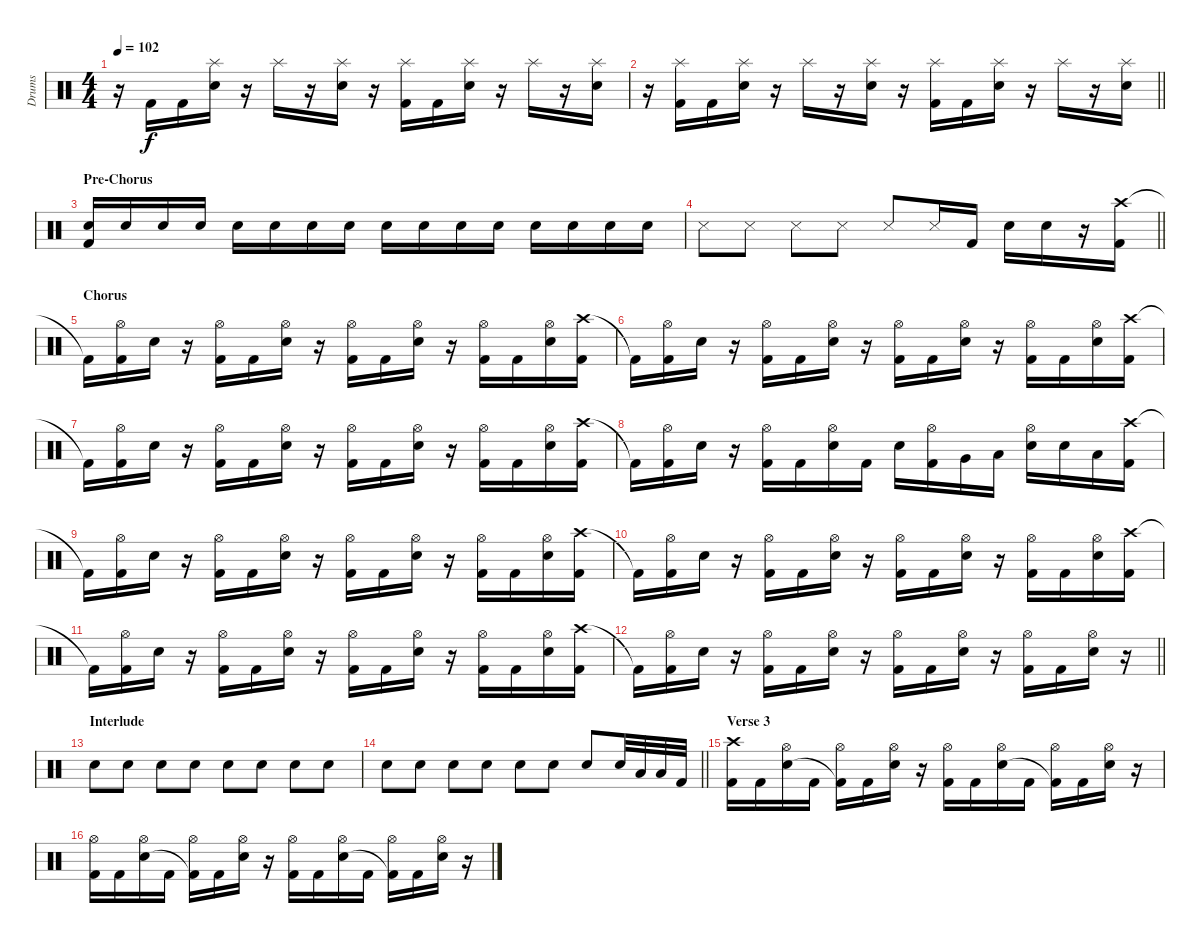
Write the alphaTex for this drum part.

\track ("Drums" "Drums") {instrument percussion}
\staff {score}
\articulation defaults
\ts (4 4)
\tempo 102
\clef neutral
\ks c
r.16{dy f} "Kick (hit) 2".16 "Kick (hit) 2".16 ("Splash (hit)" "Electric Snare (hit)").16 r.16 "Splash (hit)".16 r.16 ("Splash (hit)" "Electric Snare (hit)").16 r.16 ("Splash (hit)" "Kick (hit) 2").16 "Kick (hit) 2".16 ("Splash (hit)" "Electric Snare (hit)").16 r.16 "Splash (hit)".16 r.16 ("Splash (hit)" "Electric Snare (hit)").16 |
\barLineRight lightlight
r.16 ("Splash (hit)" "Kick (hit) 2").16 "Kick (hit) 2".16 ("Splash (hit)" "Electric Snare (hit)").16 r.16 "Splash (hit)".16 r.16 ("Splash (hit)" "Electric Snare (hit)").16 r.16 ("Splash (hit)" "Kick (hit) 2").16 "Kick (hit) 2".16 ("Splash (hit)" "Electric Snare (hit)").16 r.16 "Splash (hit)".16 r.16 ("Splash (hit)" "Electric Snare (hit)").16 |
\section ("" "Pre-Chorus")
("Electric Snare (hit)" "Kick (hit) 2").16{volume 0} "Electric Snare (hit)".16{volume 1} "Electric Snare (hit)".16{volume 2} "Electric Snare (hit)".16{volume 3} "Electric Snare (hit)".16{volume 4} "Electric Snare (hit)".16{volume 5} "Electric Snare (hit)".16{volume 6} "Electric Snare (hit)".16{volume 7} "Electric Snare (hit)".16{volume 8} "Electric Snare (hit)".16{volume 9} "Electric Snare (hit)".16{volume 10} "Electric Snare (hit)".16{volume 11} "Electric Snare (hit)".16{volume 12} "Electric Snare (hit)".16{volume 13} "Electric Snare (hit)".16{volume 14} "Electric Snare (hit)".16{volume 15} |
\barLineRight lightlight "Snare (side stick) 3".8 "Snare (side stick) 3".8 "Snare (side stick) 3".8 "Snare (side stick) 3".8 "Snare (side stick) 3".8 "Snare (side stick) 3".16 "Kick (hit) 2".16 "Electric Snare (hit)".16 "Electric Snare (hit)".16
r.16 ("Crash high (hit)" "Kick (hit) 2").16 |
\section ("" "Chorus")
"Kick (hit) 2"{t}.16 ("Hi-Hat (open)" "Kick (hit) 2").16 "Electric Snare (hit)".16 r.16 ("Hi-Hat (open)" "Kick (hit) 2").16 "Kick (hit) 2".16 ("Hi-Hat (open)" "Electric Snare (hit)").16 r.16 ("Hi-Hat (open)" "Kick (hit) 2").16 "Kick (hit) 2".16 ("Hi-Hat (open)" "Electric Snare (hit)").16 r.16 ("Hi-Hat (open)" "Kick (hit) 2").16 "Kick (hit) 2".16 ("Hi-Hat (open)" "Electric Snare (hit)").16 ("Crash high (hit)" "Kick (hit) 2").16 |
"Kick (hit) 2"{t}.16 ("Hi-Hat (open)" "Kick (hit) 2").16 "Electric Snare (hit)".16 r.16 ("Hi-Hat (open)" "Kick (hit) 2").16 "Kick (hit) 2".16 ("Hi-Hat (open)" "Electric Snare (hit)").16 r.16 ("Hi-Hat (open)" "Kick (hit) 2").16 "Kick (hit) 2".16 ("Hi-Hat (open)" "Electric Snare (hit)").16 r.16 ("Hi-Hat (open)" "Kick (hit) 2").16 "Kick (hit) 2".16 ("Hi-Hat (open)" "Electric Snare (hit)").16 ("Crash high (hit)" "Kick (hit) 2").16 |
"Kick (hit) 2"{t}.16 ("Hi-Hat (open)" "Kick (hit) 2").16 "Electric Snare (hit)".16 r.16 ("Hi-Hat (open)" "Kick (hit) 2").16 "Kick (hit) 2".16 ("Hi-Hat (open)" "Electric Snare (hit)").16 r.16 ("Hi-Hat (open)" "Kick (hit) 2").16 "Kick (hit) 2".16 ("Hi-Hat (open)" "Electric Snare (hit)").16 r.16 ("Hi-Hat (open)" "Kick (hit) 2").16 "Kick (hit) 2".16 ("Hi-Hat (open)" "Electric Snare (hit)").16 ("Crash high (hit)" "Kick (hit) 2").16 |
"Kick (hit) 2"{t}.16 ("Hi-Hat (open)" "Kick (hit) 2").16 "Electric Snare (hit)".16 r.16 ("Hi-Hat (open)" "Kick (hit) 2").16 "Kick (hit) 2".16 ("Hi-Hat (open)" "Electric Snare (hit)").16 "Kick (hit) 2".16 "Electric Snare (hit)".16 ("Hi-Hat (open)" "Kick (hit) 2").16 "Very Low Tom (hit)".16 "Low Floor Tom (hit)".16 ("Hi-Hat (open)" "Electric Snare (hit)").16 "Electric Snare (hit)".16 "Low Floor Tom (hit)".16 ("Crash high (hit)" "Kick (hit) 2").16 |
"Kick (hit) 2"{t}.16 ("Hi-Hat (open)" "Kick (hit) 2").16 "Electric Snare (hit)".16 r.16 ("Hi-Hat (open)" "Kick (hit) 2").16 "Kick (hit) 2".16 ("Hi-Hat (open)" "Electric Snare (hit)").16 r.16 ("Hi-Hat (open)" "Kick (hit) 2").16 "Kick (hit) 2".16 ("Hi-Hat (open)" "Electric Snare (hit)").16 r.16 ("Hi-Hat (open)" "Kick (hit) 2").16 "Kick (hit) 2".16 ("Hi-Hat (open)" "Electric Snare (hit)").16 ("Crash high (hit)" "Kick (hit) 2").16 |
"Kick (hit) 2"{t}.16 ("Hi-Hat (open)" "Kick (hit) 2").16 "Electric Snare (hit)".16 r.16 ("Hi-Hat (open)" "Kick (hit) 2").16 "Kick (hit) 2".16 ("Hi-Hat (open)" "Electric Snare (hit)").16 r.16 ("Hi-Hat (open)" "Kick (hit) 2").16 "Kick (hit) 2".16 ("Hi-Hat (open)" "Electric Snare (hit)").16 r.16 ("Hi-Hat (open)" "Kick (hit) 2").16 "Kick (hit) 2".16 ("Hi-Hat (open)" "Electric Snare (hit)").16 ("Crash high (hit)" "Kick (hit) 2").16 |
"Kick (hit) 2"{t}.16 ("Hi-Hat (open)" "Kick (hit) 2").16 "Electric Snare (hit)".16 r.16 ("Hi-Hat (open)" "Kick (hit) 2").16 "Kick (hit) 2".16 ("Hi-Hat (open)" "Electric Snare (hit)").16 r.16 ("Hi-Hat (open)" "Kick (hit) 2").16 "Kick (hit) 2".16 ("Hi-Hat (open)" "Electric Snare (hit)").16 r.16 ("Hi-Hat (open)" "Kick (hit) 2").16 "Kick (hit) 2".16 ("Hi-Hat (open)" "Electric Snare (hit)").16 ("Crash high (hit)" "Kick (hit) 2").16 |
\barLineRight lightlight "Kick (hit) 2"{t}.16
("Hi-Hat (open)" "Kick (hit) 2").16 "Electric Snare (hit)".16 r.16 ("Hi-Hat (open)" "Kick (hit) 2").16 "Kick (hit) 2".16 ("Hi-Hat (open)" "Electric Snare (hit)").16 r.16 ("Hi-Hat (open)" "Kick (hit) 2").16 "Kick (hit) 2".16 ("Hi-Hat (open)" "Electric Snare (hit)").16 r.16 ("Hi-Hat (open)" "Kick (hit) 2").16 "Kick (hit) 2".16 ("Hi-Hat (open)" "Electric Snare (hit)").16 r.16 |
\section ("" "Interlude")
"Electric Snare (hit)".8 "Electric Snare (hit)".8 "Electric Snare (hit)".8 "Electric Snare (hit)".8 "Electric Snare (hit)".8 "Electric Snare (hit)".8 "Electric Snare (hit)".8 "Electric Snare (hit)".8 |
\barLineRight lightlight "Electric Snare (hit)".8 "Electric Snare (hit)".8 "Electric Snare (hit)".8 "Electric Snare (hit)".8 "Electric Snare (hit)".8 "Electric Snare (hit)".8 "Electric Snare (hit)".8 "Electric Snare (hit)".32 "Low Floor Tom (hit)".32 "Low Floor Tom (hit)".32 "Kick (hit) 2".32
|
\section ("" "Verse 3")
("Crash high (hit)" "Kick (hit) 2").16 "Kick (hit) 2".16 ("Hi-Hat (open)" "Electric Snare (hit)").16 "Kick (hit) 2".16 ("Hi-Hat (open)" "Kick (hit) 2"{t}).16 "Kick (hit) 2".16 ("Hi-Hat (open)" "Electric Snare (hit)").16 r.16 ("Hi-Hat (open)" "Kick (hit) 2").16 "Kick (hit) 2".16 ("Hi-Hat (open)" "Electric Snare (hit)").16 "Kick (hit) 2".16 ("Hi-Hat (open)" "Kick (hit) 2"{t}).16 "Kick (hit) 2".16 ("Hi-Hat (open)" "Electric Snare (hit)").16 r.16 |
("Hi-Hat (open)" "Kick (hit) 2").16 "Kick (hit) 2".16 ("Hi-Hat (open)" "Electric Snare (hit)").16 "Kick (hit) 2".16 ("Hi-Hat (open)" "Kick (hit) 2"{t}).16 "Kick (hit) 2".16 ("Hi-Hat (open)" "Electric Snare (hit)").16 r.16 ("Hi-Hat (open)" "Kick (hit) 2").16 "Kick (hit) 2".16 ("Hi-Hat (open)" "Electric Snare (hit)").16 "Kick (hit) 2".16 ("Hi-Hat (open)" "Kick (hit) 2"{t}).16 "Kick (hit) 2".16 ("Hi-Hat (open)" "Electric Snare (hit)").16 r.16
